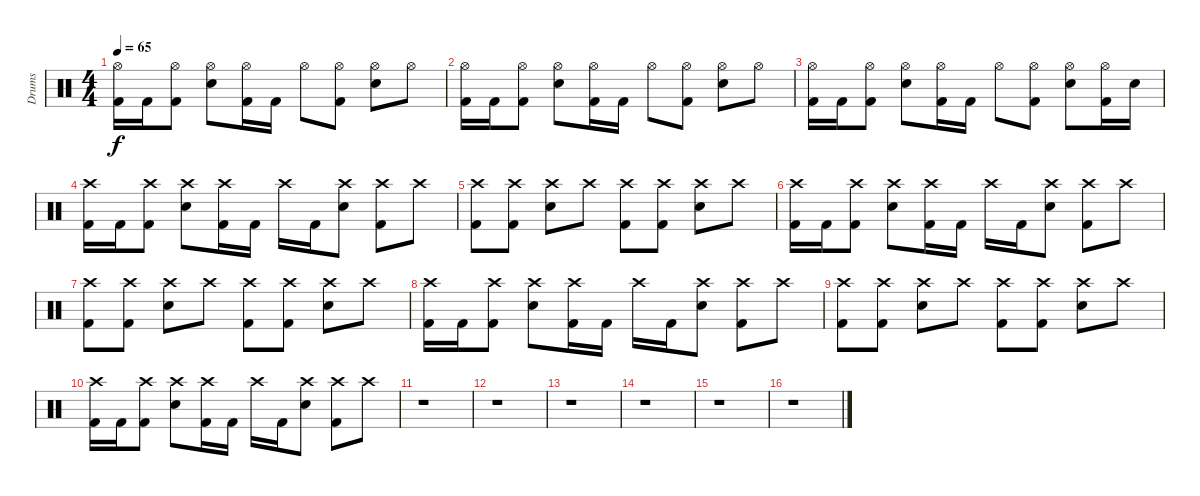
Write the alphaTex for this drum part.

\track ("Drums" "Drums") {instrument percussion}
\staff {score}
\articulation defaults
\ts (4 4)
\tempo 65
\clef neutral
\ks c
("Hi-Hat (open)" "Kick (hit) 2").16{dy f} "Kick (hit) 2".16 ("Hi-Hat (open)" "Kick (hit) 2").8 ("Hi-Hat (open)" "Electric Snare (hit)").8 ("Hi-Hat (open)" "Kick (hit) 2").16 "Kick (hit) 2".16 "Hi-Hat (open)".8 ("Hi-Hat (open)" "Kick (hit) 2").8 ("Hi-Hat (open)" "Electric Snare (hit)").8 "Hi-Hat (open)".8 |
("Hi-Hat (open)" "Kick (hit) 2").16 "Kick (hit) 2".16 ("Hi-Hat (open)" "Kick (hit) 2").8 ("Hi-Hat (open)" "Electric Snare (hit)").8 ("Hi-Hat (open)" "Kick (hit) 2").16 "Kick (hit) 2".16 "Hi-Hat (open)".8 ("Hi-Hat (open)" "Kick (hit) 2").8 ("Hi-Hat (open)" "Electric Snare (hit)").8 "Hi-Hat (open)".8 |
("Hi-Hat (open)" "Kick (hit) 2").16 "Kick (hit) 2".16 ("Hi-Hat (open)" "Kick (hit) 2").8 ("Hi-Hat (open)" "Electric Snare (hit)").8 ("Hi-Hat (open)" "Kick (hit) 2").16 "Kick (hit) 2".16 "Hi-Hat (open)".8 ("Hi-Hat (open)" "Kick (hit) 2").8 ("Hi-Hat (open)" "Electric Snare (hit)").8 ("Hi-Hat (open)" "Kick (hit) 2").16 "Electric Snare (hit)".16 |
("Crash high (hit)" "Kick (hit) 2").16 "Kick (hit) 2".16 ("Crash high (hit)" "Kick (hit) 2").8 ("Crash high (hit)" "Electric Snare (hit)").8 ("Crash high (hit)" "Kick (hit) 2").16 "Kick (hit) 2".16 "Crash high (hit)".16 "Kick (hit) 2".16 ("Crash high (hit)" "Electric Snare (hit)").8 ("Crash high (hit)" "Kick (hit) 2").8 "Crash high (hit)".8 |
("Crash high (hit)" "Kick (hit) 2").8 ("Crash high (hit)" "Kick (hit) 2").8 ("Crash high (hit)" "Electric Snare (hit)").8 "Crash high (hit)".8 ("Crash high (hit)" "Kick (hit) 2").8 ("Crash high (hit)" "Kick (hit) 2").8 ("Crash high (hit)" "Electric Snare (hit)").8 "Crash high (hit)".8 |
("Crash high (hit)" "Kick (hit) 2").16 "Kick (hit) 2".16 ("Crash high (hit)" "Kick (hit) 2").8 ("Crash high (hit)" "Electric Snare (hit)").8 ("Crash high (hit)" "Kick (hit) 2").16 "Kick (hit) 2".16 "Crash high (hit)".16 "Kick (hit) 2".16 ("Crash high (hit)" "Electric Snare (hit)").8 ("Crash high (hit)" "Kick (hit) 2").8 "Crash high (hit)".8 |
("Crash high (hit)" "Kick (hit) 2").8 ("Crash high (hit)" "Kick (hit) 2").8 ("Crash high (hit)" "Electric Snare (hit)").8 "Crash high (hit)".8 ("Crash high (hit)" "Kick (hit) 2").8 ("Crash high (hit)" "Kick (hit) 2").8 ("Crash high (hit)" "Electric Snare (hit)").8 "Crash high (hit)".8 |
("Crash high (hit)" "Kick (hit) 2").16 "Kick (hit) 2".16 ("Crash high (hit)" "Kick (hit) 2").8 ("Crash high (hit)" "Electric Snare (hit)").8 ("Crash high (hit)" "Kick (hit) 2").16 "Kick (hit) 2".16 "Crash high (hit)".16 "Kick (hit) 2".16 ("Crash high (hit)" "Electric Snare (hit)").8 ("Crash high (hit)" "Kick (hit) 2").8 "Crash high (hit)".8 |
("Crash high (hit)" "Kick (hit) 2").8 ("Crash high (hit)" "Kick (hit) 2").8 ("Crash high (hit)" "Electric Snare (hit)").8 "Crash high (hit)".8 ("Crash high (hit)" "Kick (hit) 2").8 ("Crash high (hit)" "Kick (hit) 2").8 ("Crash high (hit)" "Electric Snare (hit)").8 "Crash high (hit)".8 |
("Crash high (hit)" "Kick (hit) 2").16 "Kick (hit) 2".16 ("Crash high (hit)" "Kick (hit) 2").8 ("Crash high (hit)" "Electric Snare (hit)").8 ("Crash high (hit)" "Kick (hit) 2").16 "Kick (hit) 2".16 "Crash high (hit)".16 "Kick (hit) 2".16 ("Crash high (hit)" "Electric Snare (hit)").8 ("Crash high (hit)" "Kick (hit) 2").8 "Crash high (hit)".8 |
r.1 |
r.1 |
r.1 |
r.1 |
r.1 |
r.1
